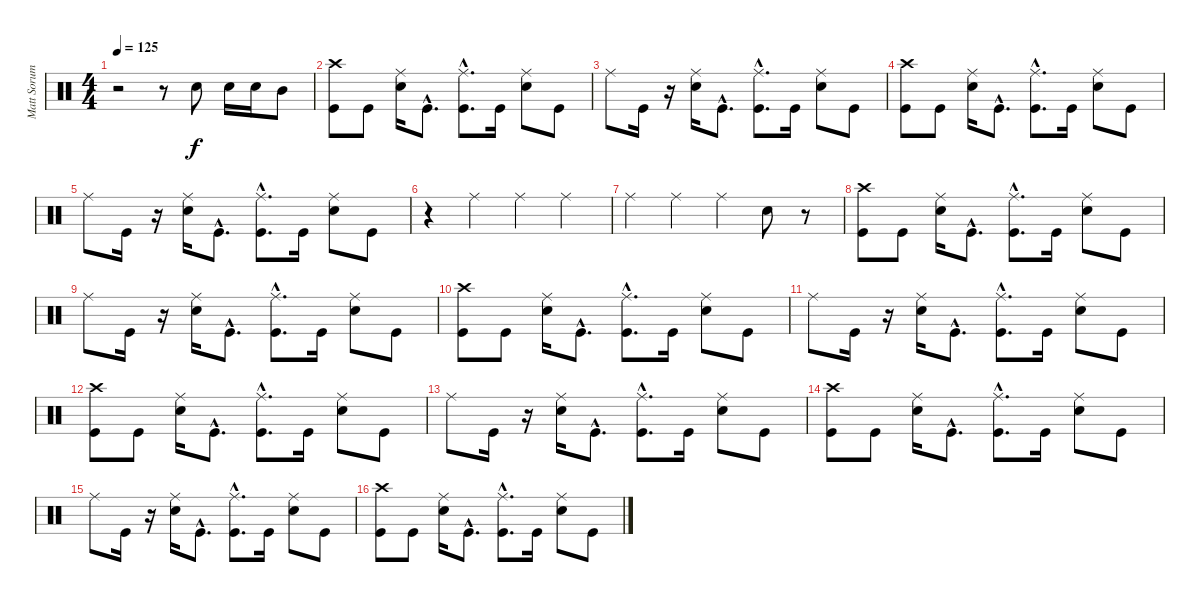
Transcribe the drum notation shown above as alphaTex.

\track ("Matt Sorum" "Matt Sorum") {instrument percussion}
\staff {score}
\articulation defaults
\ts (4 4)
\tempo 125
\clef neutral
\ks c
r.2{dy f} r.8 "Snare (hit) 2".8 "Snare (hit) 2".16 "Snare (hit) 2".16 "Mid Tom (hit)".8 |
("Crash high (hit)" "Kick (hit)").8 "Kick (hit)".8 ("Ride (middle)" "Snare (hit) 2").16 "Kick (hit)"{hac}.8{d} ("Ride (middle)" "Kick (hit)"{hac}).8{d} "Kick (hit)".16 ("Ride (middle)" "Snare (hit) 2").8 "Kick (hit)".8 |
"Ride (middle)".8 "Kick (hit)".16 r.16 ("Ride (middle)" "Snare (hit) 2").16 "Kick (hit)"{hac}.8{d} ("Ride (middle)" "Kick (hit)"{hac}).8{d} "Kick (hit)".16 ("Ride (middle)" "Snare (hit) 2").8 "Kick (hit)".8 |
("Crash high (hit)" "Kick (hit)").8 "Kick (hit)".8 ("Ride (middle)" "Snare (hit) 2").16 "Kick (hit)"{hac}.8{d} ("Ride (middle)" "Kick (hit)"{hac}).8{d} "Kick (hit)".16 ("Ride (middle)" "Snare (hit) 2").8 "Kick (hit)".8 |
"Ride (middle)".8 "Kick (hit)".16 r.16 ("Ride (middle)" "Snare (hit) 2").16 "Kick (hit)"{hac}.8{d} ("Ride (middle)" "Kick (hit)"{hac}).8{d} "Kick (hit)".16 ("Ride (middle)" "Snare (hit) 2").8 "Kick (hit)".8 |
r.4 "Ride (middle)".4 "Ride (middle)".4 "Ride (middle)".4 |
"Ride (middle)".4 "Ride (middle)".4 "Ride (middle)".4 "Electric Snare (hit)".8 r.8 |
("Crash high (hit)" "Kick (hit)").8 "Kick (hit)".8 ("Ride (middle)" "Snare (hit) 2").16 "Kick (hit)"{hac}.8{d} ("Ride (middle)" "Kick (hit)"{hac}).8{d} "Kick (hit)".16 ("Ride (middle)" "Snare (hit) 2").8 "Kick (hit)".8 |
"Ride (middle)".8 "Kick (hit)".16 r.16 ("Ride (middle)" "Snare (hit) 2").16 "Kick (hit)"{hac}.8{d} ("Ride (middle)" "Kick (hit)"{hac}).8{d} "Kick (hit)".16 ("Ride (middle)" "Snare (hit) 2").8 "Kick (hit)".8 |
("Crash high (hit)" "Kick (hit)").8 "Kick (hit)".8 ("Ride (middle)" "Snare (hit) 2").16 "Kick (hit)"{hac}.8{d} ("Ride (middle)" "Kick (hit)"{hac}).8{d} "Kick (hit)".16 ("Ride (middle)" "Snare (hit) 2").8 "Kick (hit)".8 |
"Ride (middle)".8 "Kick (hit)".16 r.16 ("Ride (middle)" "Snare (hit) 2").16 "Kick (hit)"{hac}.8{d} ("Ride (middle)" "Kick (hit)"{hac}).8{d} "Kick (hit)".16 ("Ride (middle)" "Snare (hit) 2").8 "Kick (hit)".8 |
("Crash high (hit)" "Kick (hit)").8 "Kick (hit)".8 ("Ride (middle)" "Snare (hit) 2").16 "Kick (hit)"{hac}.8{d} ("Ride (middle)" "Kick (hit)"{hac}).8{d} "Kick (hit)".16 ("Ride (middle)" "Snare (hit) 2").8 "Kick (hit)".8 |
"Ride (middle)".8 "Kick (hit)".16 r.16 ("Ride (middle)" "Snare (hit) 2").16 "Kick (hit)"{hac}.8{d} ("Ride (middle)" "Kick (hit)"{hac}).8{d} "Kick (hit)".16 ("Ride (middle)" "Snare (hit) 2").8 "Kick (hit)".8 |
("Crash high (hit)" "Kick (hit)").8 "Kick (hit)".8 ("Ride (middle)" "Snare (hit) 2").16 "Kick (hit)"{hac}.8{d} ("Ride (middle)" "Kick (hit)"{hac}).8{d} "Kick (hit)".16 ("Ride (middle)" "Snare (hit) 2").8 "Kick (hit)".8 |
"Ride (middle)".8 "Kick (hit)".16 r.16 ("Ride (middle)" "Snare (hit) 2").16 "Kick (hit)"{hac}.8{d} ("Ride (middle)" "Kick (hit)"{hac}).8{d} "Kick (hit)".16 ("Ride (middle)" "Snare (hit) 2").8 "Kick (hit)".8 |
("Crash high (hit)" "Kick (hit)").8 "Kick (hit)".8 ("Ride (middle)" "Snare (hit) 2").16 "Kick (hit)"{hac}.8{d} ("Ride (middle)" "Kick (hit)"{hac}).8{d} "Kick (hit)".16 ("Ride (middle)" "Snare (hit) 2").8 "Kick (hit)".8
